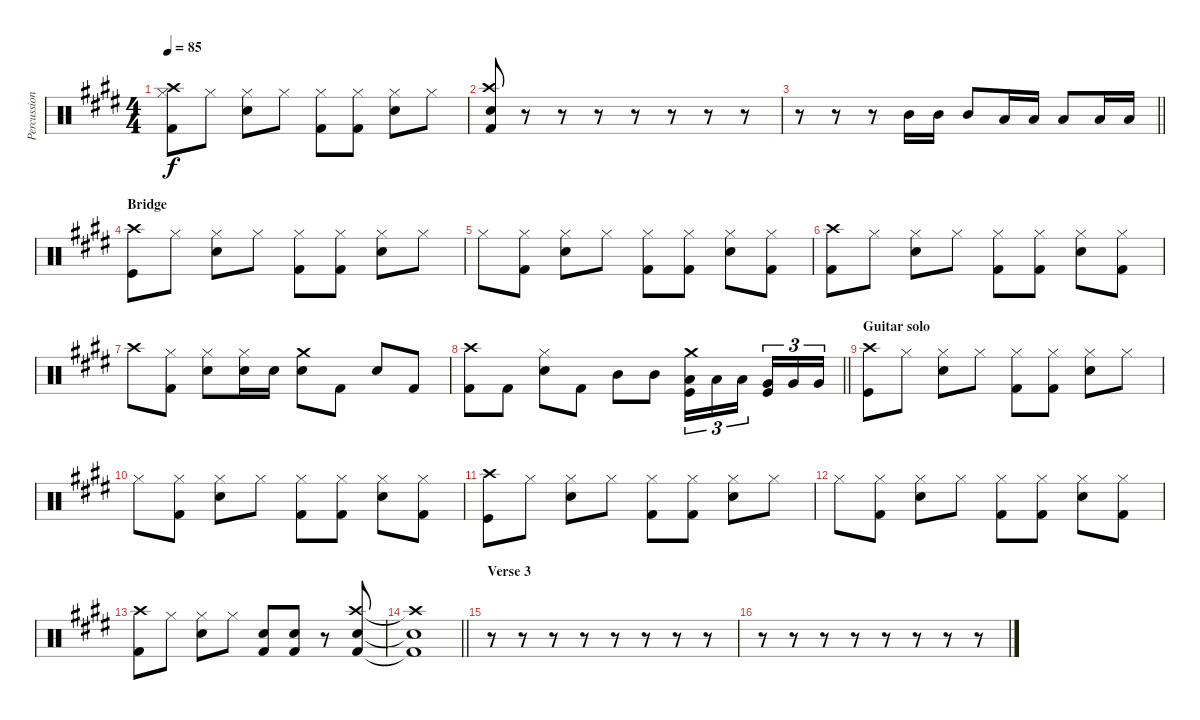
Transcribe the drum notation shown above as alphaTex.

\track ("Percussion" "Percussion") {instrument percussion}
\staff {score}
\articulation defaults
\ts (4 4)
\tempo 85
\clef neutral
\ks e
("Kick (hit) 2" "Hi-Hat (closed)" "Crash high (hit)").8{dy f} "Hi-Hat (closed)".8 ("Snare (hit) 2" "Hi-Hat (closed)").8 "Hi-Hat (closed)".8 ("Kick (hit) 2" "Hi-Hat (closed)").8 ("Kick (hit) 2" "Hi-Hat (closed)").8 ("Snare (hit) 2" "Hi-Hat (closed)").8 "Hi-Hat (closed)".8 |
("Kick (hit) 2" "Snare (hit) 2" "Crash high (hit)").8 r.8 r.8 r.8 r.8 r.8 r.8 r.8 |
\barLineRight lightlight
r.8 r.8 r.8 "Mid Tom (hit)".16 "Mid Tom (hit)".16 "Mid Tom (hit)".8 "Low Tom (hit)".16 "Low Tom (hit)".16 "Low Tom (hit)".8 "Low Tom (hit)".16 "Low Tom (hit)".16 |
\section ("" "Bridge")
("Kick (hit)" "Crash high (hit)").8 "Hi-Hat (closed)".8 ("Snare (hit) 2" "Hi-Hat (closed)").8 "Hi-Hat (closed)".8 ("Kick (hit) 2" "Hi-Hat (closed)").8 ("Kick (hit) 2" "Hi-Hat (closed)").8 ("Snare (hit) 2" "Hi-Hat (closed)").8 "Hi-Hat (closed)".8 |
"Hi-Hat (closed)".8 ("Kick (hit) 2" "Hi-Hat (closed)").8 ("Snare (hit) 2" "Hi-Hat (closed)").8 "Hi-Hat (closed)".8 ("Kick (hit) 2" "Hi-Hat (closed)").8 ("Kick (hit) 2" "Hi-Hat (closed)").8 ("Snare (hit) 2" "Hi-Hat (closed)").8 ("Kick (hit) 2" "Hi-Hat (closed)").8 |
("Kick (hit) 2" "Crash high (hit)").8 "Hi-Hat (closed)".8 ("Snare (hit) 2" "Hi-Hat (closed)").8 "Hi-Hat (closed)".8 ("Kick (hit) 2" "Hi-Hat (closed)").8 ("Kick (hit) 2" "Hi-Hat (closed)").8 ("Snare (hit) 2" "Hi-Hat (closed)").8 ("Kick (hit) 2" "Hi-Hat (closed)").8 |
"Crash high (hit)".8 ("Kick (hit) 2" "Hi-Hat (closed)").8 ("Snare (hit) 2" "Hi-Hat (closed)").8 ("Snare (hit) 2" "Hi-Hat (closed)").16 "Snare (hit) 2".16 ("Snare (hit) 2" "Crash medium (hit)").8 "Kick (hit) 2".8 "Snare (hit) 2".8 "Kick (hit) 2".8 |
\barLineRight lightlight
("Kick (hit) 2" "Crash high (hit)").8 "Kick (hit) 2".8 ("Snare (hit) 2" "Hi-Hat (closed)").8 "Kick (hit) 2".8 "Mid Tom (hit)".8 "Mid Tom (hit)".8 ("Kick (hit)" "Low Tom (hit)" "Crash medium (hit)").16{tu (3 2)} "Low Tom (hit)".16{tu (3 2)} "Low Tom (hit)".16{tu (3 2) beam splitsecondary} ("Kick (hit)" "Very Low Tom (hit)").16{tu (3 2)} "Very Low Tom (hit)".16{tu (3 2)} "Very Low Tom (hit)".16{tu (3 2)} |
\section ("" "Guitar solo")
("Kick (hit)" "Crash high (hit)").8 "Hi-Hat (closed)".8 ("Snare (hit) 2" "Hi-Hat (closed)").8 "Hi-Hat (closed)".8 ("Kick (hit) 2" "Hi-Hat (closed)").8 ("Kick (hit) 2" "Hi-Hat (closed)").8 ("Snare (hit) 2" "Hi-Hat (closed)").8 "Hi-Hat (closed)".8 |
"Hi-Hat (closed)".8 ("Kick (hit) 2" "Hi-Hat (closed)").8 ("Snare (hit) 2" "Hi-Hat (closed)").8 "Hi-Hat (closed)".8 ("Kick (hit) 2" "Hi-Hat (closed)").8 ("Kick (hit) 2" "Hi-Hat (closed)").8 ("Snare (hit) 2" "Hi-Hat (closed)").8 ("Kick (hit) 2" "Hi-Hat (closed)").8 |
("Kick (hit)" "Crash high (hit)").8 "Hi-Hat (closed)".8 ("Snare (hit) 2" "Hi-Hat (closed)").8 "Hi-Hat (closed)".8 ("Kick (hit) 2" "Hi-Hat (closed)").8 ("Kick (hit) 2" "Hi-Hat (closed)").8 ("Snare (hit) 2" "Hi-Hat (closed)").8 "Hi-Hat (closed)".8 |
"Hi-Hat (closed)".8 ("Kick (hit) 2" "Hi-Hat (closed)").8 ("Snare (hit) 2" "Hi-Hat (closed)").8 "Hi-Hat (closed)".8 ("Kick (hit) 2" "Hi-Hat (closed)").8 ("Kick (hit) 2" "Hi-Hat (closed)").8 ("Snare (hit) 2" "Hi-Hat (closed)").8 ("Kick (hit) 2" "Hi-Hat (closed)").8 |
("Kick (hit) 2" "Crash high (hit)").8 "Hi-Hat (closed)".8 ("Snare (hit) 2" "Hi-Hat (closed)").8 "Hi-Hat (closed)".8 ("Kick (hit) 2" "Snare (hit) 2").8 ("Kick (hit) 2" "Snare (hit) 2").8 r.8 ("Kick (hit) 2" "Snare (hit) 2" "Crash high (hit)").8 |
\barLineRight lightlight
("Kick (hit) 2"{t} "Snare (hit) 2"{t} "Crash high (hit)"{t}).1 |
\section ("" "Verse 3")
r.8 r.8 r.8 r.8 r.8 r.8 r.8 r.8 |
r.8 r.8 r.8 r.8 r.8 r.8 r.8 r.8
